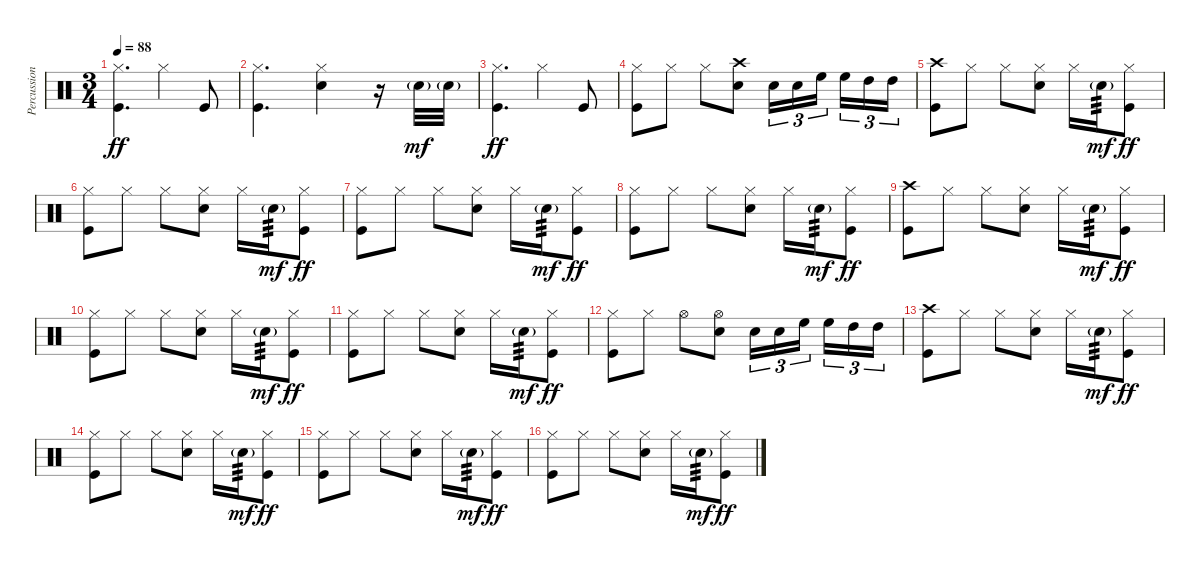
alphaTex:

\track ("Percussion" "Percussion") {instrument percussion}
\staff {score}
\articulation defaults
\ts (3 4)
\tempo 88
\clef neutral
\ks c
("Kick (hit)" "Hi-Hat (closed)").4{d dy ff} "Hi-Hat (closed)".4 "Kick (hit)".8 |
("Kick (hit)" "Hi-Hat (closed)").4{d} ("Hi-Hat (closed)" "Snare (hit) 2").4 r.16 "Snare (hit) 2"{g}.32{dy mf} "Snare (hit) 2"{g}.32 |
("Kick (hit)" "Hi-Hat (closed)").4{d dy ff} "Hi-Hat (closed)".4 "Kick (hit)".8 |
("Kick (hit)" "Hi-Hat (closed)").8 "Hi-Hat (closed)".8 "Hi-Hat (closed)".8 ("Snare (hit) 2" "Crash high (hit)").8 "Snare (hit) 2".16{tu (3 2)} "Snare (hit) 2".16{tu (3 2)} "High Floor Tom (hit)".16{tu (3 2) beam splitsecondary} "High Floor Tom (hit)".16{tu (3 2)} "High Tom (hit)".16{tu (3 2)} "High Tom (hit)".16{tu (3 2)} |
("Kick (hit)" "Crash high (hit)").8 "Hi-Hat (closed)".8 "Hi-Hat (closed)".8 ("Snare (hit) 2" "Hi-Hat (closed)").8 "Hi-Hat (closed)".16 "Snare (hit) 2"{g}.16{tp 3 dy mf} ("Hi-Hat (closed)" "Kick (hit)").8{dy ff} |
("Kick (hit)" "Hi-Hat (closed)").8 "Hi-Hat (closed)".8 "Hi-Hat (closed)".8 ("Snare (hit) 2" "Hi-Hat (closed)").8 "Hi-Hat (closed)".16 "Snare (hit) 2"{g}.16{tp 3 dy mf} ("Hi-Hat (closed)" "Kick (hit)").8{dy ff} |
("Kick (hit)" "Hi-Hat (closed)").8 "Hi-Hat (closed)".8 "Hi-Hat (closed)".8 ("Snare (hit) 2" "Hi-Hat (closed)").8 "Hi-Hat (closed)".16 "Snare (hit) 2"{g}.16{tp 3 dy mf} ("Hi-Hat (closed)" "Kick (hit)").8{dy ff} |
("Kick (hit)" "Hi-Hat (closed)").8 "Hi-Hat (closed)".8 "Hi-Hat (closed)".8 ("Snare (hit) 2" "Hi-Hat (closed)").8 "Hi-Hat (closed)".16 "Snare (hit) 2"{g}.16{tp 3 dy mf} ("Hi-Hat (closed)" "Kick (hit)").8{dy ff} |
("Kick (hit)" "Crash high (hit)").8 "Hi-Hat (closed)".8 "Hi-Hat (closed)".8 ("Snare (hit) 2" "Hi-Hat (closed)").8 "Hi-Hat (closed)".16 "Snare (hit) 2"{g}.16{tp 3 dy mf} ("Hi-Hat (closed)" "Kick (hit)").8{dy ff} |
("Kick (hit)" "Hi-Hat (closed)").8 "Hi-Hat (closed)".8 "Hi-Hat (closed)".8 ("Snare (hit) 2" "Hi-Hat (closed)").8 "Hi-Hat (closed)".16 "Snare (hit) 2"{g}.16{tp 3 dy mf} ("Hi-Hat (closed)" "Kick (hit)").8{dy ff} |
("Kick (hit)" "Hi-Hat (closed)").8 "Hi-Hat (closed)".8 "Hi-Hat (closed)".8 ("Snare (hit) 2" "Hi-Hat (closed)").8 "Hi-Hat (closed)".16 "Snare (hit) 2"{g}.16{tp 3 dy mf} ("Hi-Hat (closed)" "Kick (hit)").8{dy ff} |
("Kick (hit)" "Hi-Hat (closed)").8 "Hi-Hat (closed)".8 "Hi-Hat (open)".8 ("Snare (hit) 2" "Hi-Hat (open)").8 "Snare (hit) 2".16{tu (3 2)} "Snare (hit) 2".16{tu (3 2)} "High Floor Tom (hit)".16{tu (3 2) beam splitsecondary} "High Floor Tom (hit)".16{tu (3 2)} "High Tom (hit)".16{tu (3 2)} "High Tom (hit)".16{tu (3 2)} |
("Kick (hit)" "Crash high (hit)").8 "Hi-Hat (closed)".8 "Hi-Hat (closed)".8 ("Snare (hit) 2" "Hi-Hat (closed)").8 "Hi-Hat (closed)".16 "Snare (hit) 2"{g}.16{tp 3 dy mf} ("Hi-Hat (closed)" "Kick (hit)").8{dy ff} |
("Kick (hit)" "Hi-Hat (closed)").8 "Hi-Hat (closed)".8 "Hi-Hat (closed)".8 ("Snare (hit) 2" "Hi-Hat (closed)").8 "Hi-Hat (closed)".16 "Snare (hit) 2"{g}.16{tp 3 dy mf} ("Hi-Hat (closed)" "Kick (hit)").8{dy ff} |
("Kick (hit)" "Hi-Hat (closed)").8 "Hi-Hat (closed)".8 "Hi-Hat (closed)".8 ("Snare (hit) 2" "Hi-Hat (closed)").8 "Hi-Hat (closed)".16 "Snare (hit) 2"{g}.16{tp 3 dy mf} ("Hi-Hat (closed)" "Kick (hit)").8{dy ff} |
("Kick (hit)" "Hi-Hat (closed)").8 "Hi-Hat (closed)".8 "Hi-Hat (closed)".8 ("Snare (hit) 2" "Hi-Hat (closed)").8 "Hi-Hat (closed)".16 "Snare (hit) 2"{g}.16{tp 3 dy mf} ("Hi-Hat (closed)" "Kick (hit)").8{dy ff}
